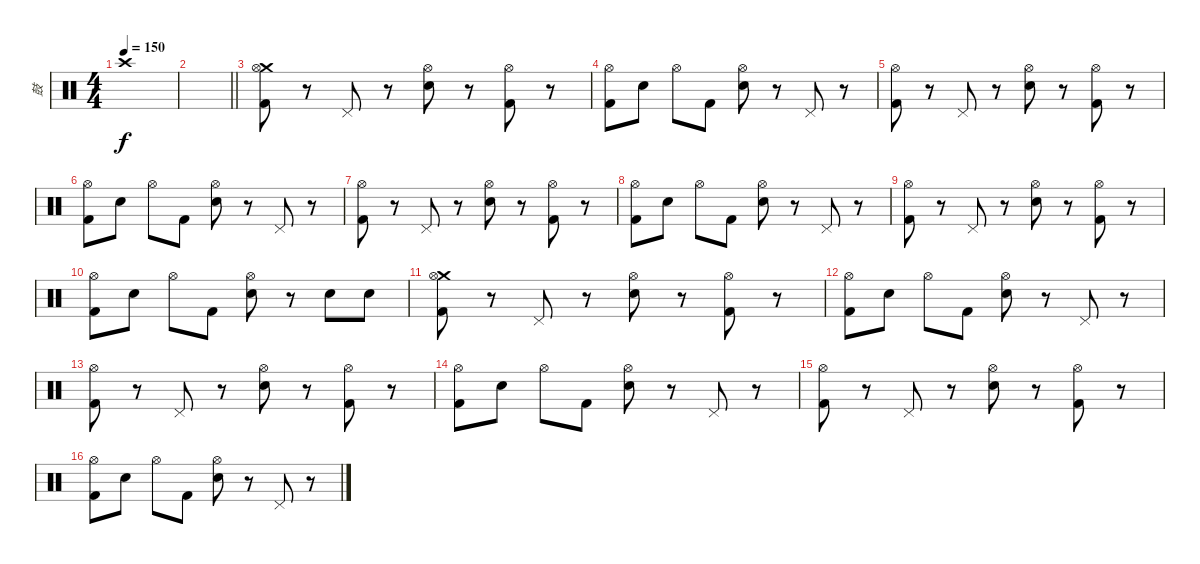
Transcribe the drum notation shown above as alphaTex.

\track ("鼓" "鼓") {instrument percussion}
\staff {score}
\articulation defaults
\ts (4 4)
\tempo 150
\clef neutral
\ks c "Crash high (hit)".1{dy f}
|
\barLineRight lightlight
|
("Crash medium (hit)" "Hi-Hat (open)" "Kick (hit) 2").8 r.8 "Pedal Hi-Hat (hit)".8 r.8 ("Hi-Hat (open)" "Electric Snare (hit)").8 r.8 ("Hi-Hat (open)" "Kick (hit) 2").8 r.8 |
("Hi-Hat (open)" "Kick (hit) 2").8 "Electric Snare (hit)".8 "Hi-Hat (open)".8 "Kick (hit) 2".8 ("Hi-Hat (open)" "Electric Snare (hit)").8 r.8 "Pedal Hi-Hat (hit)".8 r.8 |
("Hi-Hat (open)" "Kick (hit) 2").8 r.8 "Pedal Hi-Hat (hit)".8 r.8 ("Hi-Hat (open)" "Electric Snare (hit)").8 r.8 ("Hi-Hat (open)" "Kick (hit) 2").8 r.8 |
("Hi-Hat (open)" "Kick (hit) 2").8 "Electric Snare (hit)".8 "Hi-Hat (open)".8 "Kick (hit) 2".8 ("Hi-Hat (open)" "Electric Snare (hit)").8 r.8 "Pedal Hi-Hat (hit)".8 r.8 |
("Hi-Hat (open)" "Kick (hit) 2").8 r.8 "Pedal Hi-Hat (hit)".8 r.8 ("Hi-Hat (open)" "Electric Snare (hit)").8 r.8 ("Hi-Hat (open)" "Kick (hit) 2").8 r.8 |
("Hi-Hat (open)" "Kick (hit) 2").8 "Electric Snare (hit)".8 "Hi-Hat (open)".8 "Kick (hit) 2".8 ("Hi-Hat (open)" "Electric Snare (hit)").8 r.8 "Pedal Hi-Hat (hit)".8 r.8 |
("Hi-Hat (open)" "Kick (hit) 2").8 r.8 "Pedal Hi-Hat (hit)".8 r.8 ("Hi-Hat (open)" "Electric Snare (hit)").8 r.8 ("Hi-Hat (open)" "Kick (hit) 2").8 r.8 |
("Hi-Hat (open)" "Kick (hit) 2").8 "Electric Snare (hit)".8 "Hi-Hat (open)".8 "Kick (hit) 2".8 ("Hi-Hat (open)" "Electric Snare (hit)").8 r.8 "Electric Snare (hit)".8 "Electric Snare (hit)".8 |
("Crash medium (hit)" "Hi-Hat (open)" "Kick (hit) 2").8 r.8 "Pedal Hi-Hat (hit)".8 r.8 ("Hi-Hat (open)" "Electric Snare (hit)").8 r.8 ("Hi-Hat (open)" "Kick (hit) 2").8 r.8 |
("Hi-Hat (open)" "Kick (hit) 2").8 "Electric Snare (hit)".8 "Hi-Hat (open)".8 "Kick (hit) 2".8 ("Hi-Hat (open)" "Electric Snare (hit)").8 r.8 "Pedal Hi-Hat (hit)".8 r.8 |
("Hi-Hat (open)" "Kick (hit) 2").8 r.8 "Pedal Hi-Hat (hit)".8 r.8 ("Hi-Hat (open)" "Electric Snare (hit)").8 r.8 ("Hi-Hat (open)" "Kick (hit) 2").8 r.8 |
("Hi-Hat (open)" "Kick (hit) 2").8 "Electric Snare (hit)".8 "Hi-Hat (open)".8 "Kick (hit) 2".8 ("Hi-Hat (open)" "Electric Snare (hit)").8 r.8 "Pedal Hi-Hat (hit)".8 r.8 |
("Hi-Hat (open)" "Kick (hit) 2").8 r.8 "Pedal Hi-Hat (hit)".8 r.8 ("Hi-Hat (open)" "Electric Snare (hit)").8 r.8 ("Hi-Hat (open)" "Kick (hit) 2").8 r.8 |
("Hi-Hat (open)" "Kick (hit) 2").8 "Electric Snare (hit)".8 "Hi-Hat (open)".8 "Kick (hit) 2".8 ("Hi-Hat (open)" "Electric Snare (hit)").8 r.8 "Pedal Hi-Hat (hit)".8 r.8
